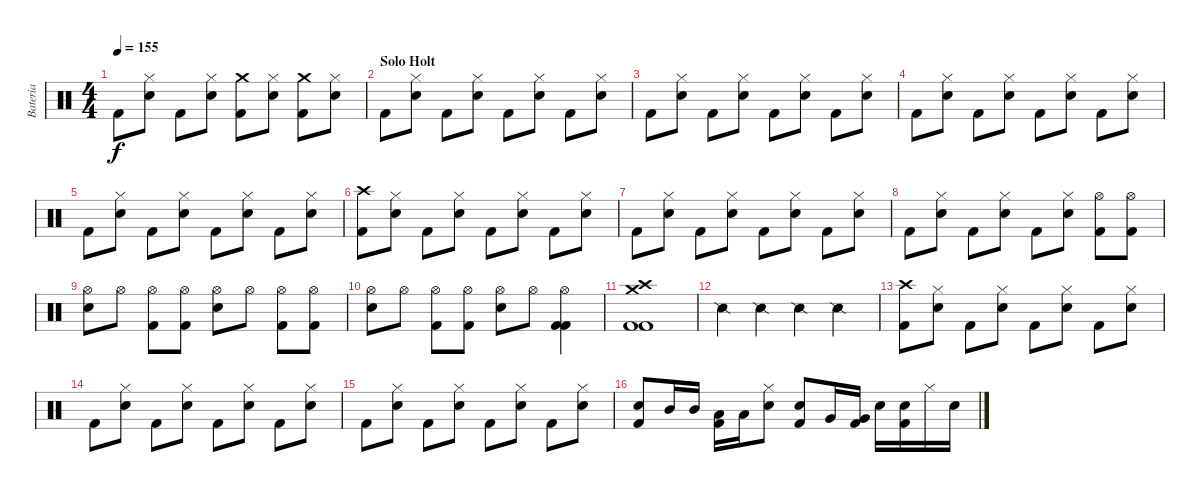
\track ("Bateria" "Bateria") {instrument percussion}
\staff {score}
\articulation defaults
\ts (4 4)
\tempo 155
\clef neutral
\ks c "Kick (hit) 2".8{dy f}
("Electric Snare (hit)" "Hi-Hat (closed)").8 "Kick (hit) 2".8 ("Electric Snare (hit)" "Hi-Hat (closed)").8 ("Kick (hit) 2" "Crash medium (hit)").8 ("Electric Snare (hit)" "Hi-Hat (closed)").8 ("Kick (hit) 2" "Crash medium (hit)").8 ("Electric Snare (hit)" "Hi-Hat (closed)").8 |
\section ("" "Solo Holt")
"Kick (hit) 2".8 ("Electric Snare (hit)" "Hi-Hat (closed)").8 "Kick (hit) 2".8 ("Electric Snare (hit)" "Hi-Hat (closed)").8 "Kick (hit) 2".8 ("Electric Snare (hit)" "Hi-Hat (closed)").8 "Kick (hit) 2".8 ("Electric Snare (hit)" "Hi-Hat (closed)").8 |
"Kick (hit) 2".8 ("Electric Snare (hit)" "Hi-Hat (closed)").8 "Kick (hit) 2".8 ("Electric Snare (hit)" "Hi-Hat (closed)").8 "Kick (hit) 2".8 ("Electric Snare (hit)" "Hi-Hat (closed)").8 "Kick (hit) 2".8 ("Electric Snare (hit)" "Hi-Hat (closed)").8 |
"Kick (hit) 2".8 ("Electric Snare (hit)" "Hi-Hat (closed)").8 "Kick (hit) 2".8 ("Electric Snare (hit)" "Hi-Hat (closed)").8 "Kick (hit) 2".8 ("Electric Snare (hit)" "Hi-Hat (closed)").8 "Kick (hit) 2".8 ("Electric Snare (hit)" "Hi-Hat (closed)").8 |
"Kick (hit) 2".8 ("Electric Snare (hit)" "Hi-Hat (closed)").8 "Kick (hit) 2".8 ("Electric Snare (hit)" "Hi-Hat (closed)").8 "Kick (hit) 2".8 ("Electric Snare (hit)" "Hi-Hat (closed)").8 "Kick (hit) 2".8 ("Electric Snare (hit)" "Hi-Hat (closed)").8 |
("Kick (hit) 2" "Crash high (hit)").8 ("Electric Snare (hit)" "Hi-Hat (closed)").8 "Kick (hit) 2".8 ("Electric Snare (hit)" "Hi-Hat (closed)").8 "Kick (hit) 2".8 ("Electric Snare (hit)" "Hi-Hat (closed)").8 "Kick (hit) 2".8 ("Electric Snare (hit)" "Hi-Hat (closed)").8 |
"Kick (hit) 2".8 ("Electric Snare (hit)" "Hi-Hat (closed)").8 "Kick (hit) 2".8 ("Electric Snare (hit)" "Hi-Hat (closed)").8 "Kick (hit) 2".8 ("Electric Snare (hit)" "Hi-Hat (closed)").8 "Kick (hit) 2".8 ("Electric Snare (hit)" "Hi-Hat (closed)").8 |
"Kick (hit) 2".8 ("Electric Snare (hit)" "Hi-Hat (closed)").8 "Kick (hit) 2".8 ("Electric Snare (hit)" "Hi-Hat (closed)").8 "Kick (hit) 2".8 ("Electric Snare (hit)" "Hi-Hat (closed)").8 ("Kick (hit) 2" "Hi-Hat (open)").8 ("Kick (hit) 2" "Hi-Hat (open)").8 |
("Electric Snare (hit)" "Hi-Hat (open)").8 "Hi-Hat (open)".8 ("Kick (hit) 2" "Hi-Hat (open)").8 ("Kick (hit) 2" "Hi-Hat (open)").8 ("Electric Snare (hit)" "Hi-Hat (open)").8 "Hi-Hat (open)".8 ("Kick (hit) 2" "Hi-Hat (open)").8 ("Kick (hit) 2" "Hi-Hat (open)").8 |
("Electric Snare (hit)" "Hi-Hat (open)").8 "Hi-Hat (open)".8 ("Kick (hit) 2" "Hi-Hat (open)").8 ("Kick (hit) 2" "Hi-Hat (open)").8 ("Electric Snare (hit)" "Hi-Hat (open)").8 "Hi-Hat (open)".8 ("Kick (hit) 2" "Kick (hit) 2" "Hi-Hat (open)").4 |
("Kick (hit) 2" "Kick (hit) 2" "Crash high (hit)" "Crash medium (hit)").1 |
"Snare (side stick) 2".4 "Snare (side stick) 2".4 "Snare (side stick) 2".4 "Snare (side stick) 2".4 |
("Kick (hit) 2" "Crash high (hit)").8 ("Electric Snare (hit)" "Hi-Hat (closed)").8 "Kick (hit) 2".8 ("Electric Snare (hit)" "Hi-Hat (closed)").8 "Kick (hit) 2".8 ("Electric Snare (hit)" "Hi-Hat (closed)").8 "Kick (hit) 2".8 ("Electric Snare (hit)" "Hi-Hat (closed)").8 |
"Kick (hit) 2".8 ("Electric Snare (hit)" "Hi-Hat (closed)").8 "Kick (hit) 2".8 ("Electric Snare (hit)" "Hi-Hat (closed)").8 "Kick (hit) 2".8 ("Electric Snare (hit)" "Hi-Hat (closed)").8 "Kick (hit) 2".8 ("Electric Snare (hit)" "Hi-Hat (closed)").8 |
"Kick (hit) 2".8 ("Electric Snare (hit)" "Hi-Hat (closed)").8 "Kick (hit) 2".8 ("Electric Snare (hit)" "Hi-Hat (closed)").8 "Kick (hit) 2".8 ("Electric Snare (hit)" "Hi-Hat (closed)").8 "Kick (hit) 2".8 ("Electric Snare (hit)" "Hi-Hat (closed)").8 |
("Kick (hit) 2" "Electric Snare (hit)").8 "Mid Tom (hit)".16 "Mid Tom (hit)".16 ("Kick (hit) 2" "Low Tom (hit)").16 "Low Tom (hit)".16 ("Electric Snare (hit)" "Hi-Hat (closed)").8 ("Kick (hit) 2" "Electric Snare (hit)").8 "Very Low Tom (hit)".16 ("Kick (hit) 2" "Very Low Tom (hit)").16 "Electric Snare (hit)".16 ("Kick (hit) 2" "Electric Snare (hit)").16 "Hi-Hat (closed)".16 "Electric Snare (hit)".16
